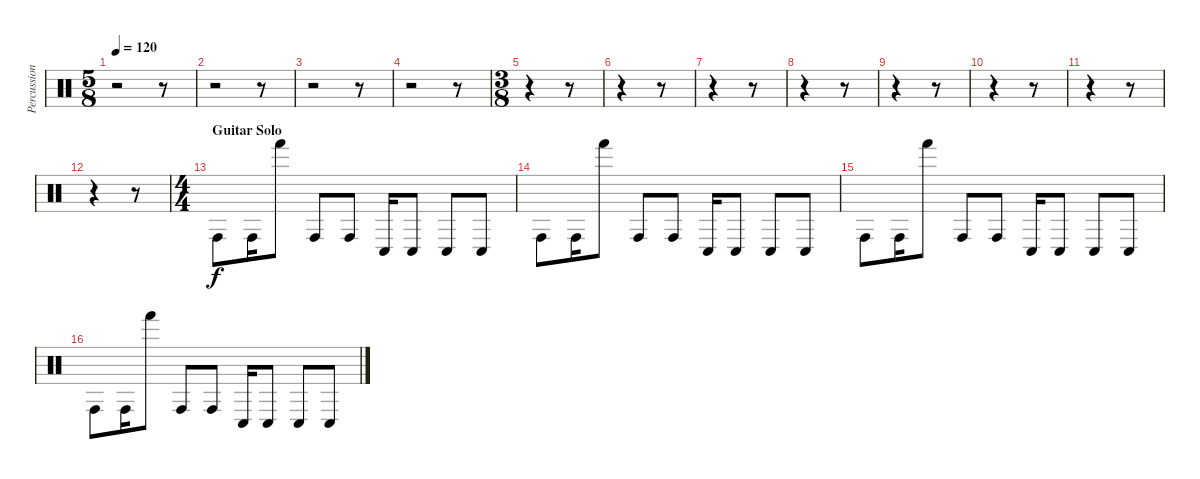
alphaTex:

\track ("Percussion" "Percussion") {instrument percussion}
\staff {score}
\articulation defaults
\ts (5 8)
\tempo 120
\clef neutral
\ks c
r.2{dy f} r.8 |
r.2 r.8 |
r.2 r.8 |
r.2 r.8 |
\ts (3 8)
r.4 r.8 |
r.4 r.8 |
r.4 r.8 |
r.4 r.8 |
r.4 r.8 |
r.4 r.8 |
r.4 r.8 |
r.4 r.8 |
\ts (4 4)
\section ("" "Guitar Solo")
"Conga high (hit)".8 "Conga high (hit)".16 "Hand (hit)".8 "Conga high (hit)".8 "Conga high (hit)".8 "Conga low (hit)".16 "Conga low (hit)".8 "Conga low (hit)".8 "Conga low (hit)".8 |
"Conga high (hit)".8 "Conga high (hit)".16 "Hand (hit)".8 "Conga high (hit)".8 "Conga high (hit)".8 "Conga low (hit)".16 "Conga low (hit)".8 "Conga low (hit)".8 "Conga low (hit)".8 |
"Conga high (hit)".8 "Conga high (hit)".16 "Hand (hit)".8 "Conga high (hit)".8 "Conga high (hit)".8 "Conga low (hit)".16 "Conga low (hit)".8 "Conga low (hit)".8 "Conga low (hit)".8 |
"Conga high (hit)".8 "Conga high (hit)".16 "Hand (hit)".8 "Conga high (hit)".8 "Conga high (hit)".8 "Conga low (hit)".16 "Conga low (hit)".8 "Conga low (hit)".8 "Conga low (hit)".8
